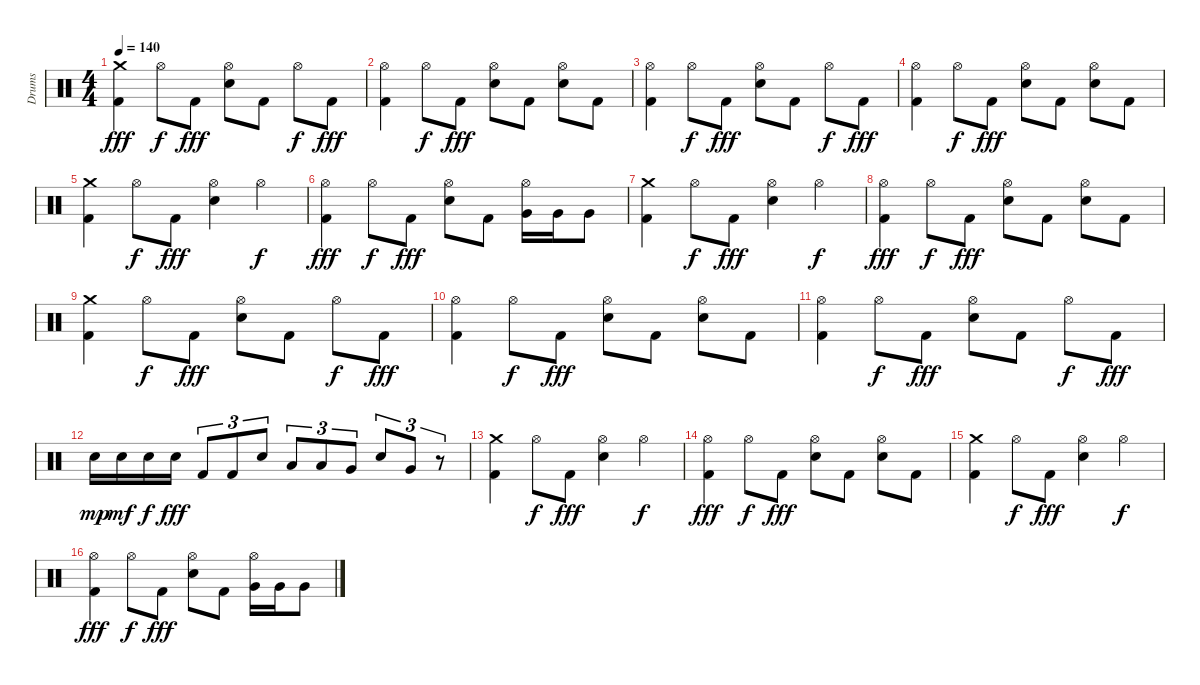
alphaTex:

\track ("Drums" "Drums") {instrument percussion}
\staff {score}
\articulation defaults
\ts (4 4)
\tempo 140
\clef neutral
\ks c
("Crash medium (hit)" "Kick (hit) 2").4{dy fff} "Hi-Hat (open)".8{dy f} "Kick (hit) 2".8{dy fff} ("Hi-Hat (open)" "Electric Snare (hit)").8 "Kick (hit) 2".8 "Hi-Hat (open)".8{dy f} "Kick (hit) 2".8{dy fff} |
("Hi-Hat (open)" "Kick (hit) 2").4 "Hi-Hat (open)".8{dy f} "Kick (hit) 2".8{dy fff} ("Hi-Hat (open)" "Electric Snare (hit)").8 "Kick (hit) 2".8 ("Hi-Hat (open)" "Electric Snare (hit)").8 "Kick (hit) 2".8 |
("Hi-Hat (open)" "Kick (hit) 2").4 "Hi-Hat (open)".8{dy f} "Kick (hit) 2".8{dy fff} ("Hi-Hat (open)" "Electric Snare (hit)").8 "Kick (hit) 2".8 "Hi-Hat (open)".8{dy f} "Kick (hit) 2".8{dy fff} |
("Hi-Hat (open)" "Kick (hit) 2").4 "Hi-Hat (open)".8{dy f} "Kick (hit) 2".8{dy fff} ("Hi-Hat (open)" "Electric Snare (hit)").8 "Kick (hit) 2".8 ("Hi-Hat (open)" "Electric Snare (hit)").8 "Kick (hit) 2".8 |
("Crash medium (hit)" "Kick (hit) 2").4 "Hi-Hat (open)".8{dy f} "Kick (hit) 2".8{dy fff} ("Hi-Hat (open)" "Electric Snare (hit)").4 "Hi-Hat (open)".4{dy f} |
("Hi-Hat (open)" "Kick (hit) 2").4{dy fff} "Hi-Hat (open)".8{dy f} "Kick (hit) 2".8{dy fff} ("Hi-Hat (open)" "Electric Snare (hit)").8 "Kick (hit) 2".8 ("Hi-Hat (open)" "Very Low Tom (hit)").16 "Very Low Tom (hit)".16 "Very Low Tom (hit)".8 |
("Crash medium (hit)" "Kick (hit) 2").4 "Hi-Hat (open)".8{dy f} "Kick (hit) 2".8{dy fff} ("Hi-Hat (open)" "Electric Snare (hit)").4 "Hi-Hat (open)".4{dy f} |
("Hi-Hat (open)" "Kick (hit) 2").4{dy fff} "Hi-Hat (open)".8{dy f} "Kick (hit) 2".8{dy fff} ("Hi-Hat (open)" "Electric Snare (hit)").8 "Kick (hit) 2".8 ("Hi-Hat (open)" "Electric Snare (hit)").8 "Kick (hit) 2".8 |
("Crash medium (hit)" "Kick (hit) 2").4 "Hi-Hat (open)".8{dy f} "Kick (hit) 2".8{dy fff} ("Hi-Hat (open)" "Electric Snare (hit)").8 "Kick (hit) 2".8 "Hi-Hat (open)".8{dy f} "Kick (hit) 2".8{dy fff} |
("Hi-Hat (open)" "Kick (hit) 2").4 "Hi-Hat (open)".8{dy f} "Kick (hit) 2".8{dy fff} ("Hi-Hat (open)" "Electric Snare (hit)").8 "Kick (hit) 2".8 ("Hi-Hat (open)" "Electric Snare (hit)").8 "Kick (hit) 2".8 |
("Hi-Hat (open)" "Kick (hit) 2").4 "Hi-Hat (open)".8{dy f} "Kick (hit) 2".8{dy fff} ("Hi-Hat (open)" "Electric Snare (hit)").8 "Kick (hit) 2".8 "Hi-Hat (open)".8{dy f} "Kick (hit) 2".8{dy fff} |
"Electric Snare (hit)".16{dy mp} "Electric Snare (hit)".16{dy mf} "Electric Snare (hit)".16{dy f} "Electric Snare (hit)".16{dy fff} "Kick (hit) 2".8{tu (3 2)} "Kick (hit) 2".8{tu (3 2)} "Electric Snare (hit)".8{tu (3 2)} "Low Tom (hit)".8{tu (3 2)} "Low Tom (hit)".8{tu (3 2)} "Very Low Tom (hit)".8{tu (3 2)} "Electric Snare (hit)".8{tu (3 2)} "Very Low Tom (hit)".8{tu (3 2)} r.8{tu (3 2)} |
("Crash medium (hit)" "Kick (hit) 2").4 "Hi-Hat (open)".8{dy f} "Kick (hit) 2".8{dy fff} ("Hi-Hat (open)" "Electric Snare (hit)").4 "Hi-Hat (open)".4{dy f} |
("Hi-Hat (open)" "Kick (hit) 2").4{dy fff} "Hi-Hat (open)".8{dy f} "Kick (hit) 2".8{dy fff} ("Hi-Hat (open)" "Electric Snare (hit)").8 "Kick (hit) 2".8 ("Hi-Hat (open)" "Electric Snare (hit)").8 "Kick (hit) 2".8 |
("Crash medium (hit)" "Kick (hit) 2").4 "Hi-Hat (open)".8{dy f} "Kick (hit) 2".8{dy fff} ("Hi-Hat (open)" "Electric Snare (hit)").4 "Hi-Hat (open)".4{dy f} |
("Hi-Hat (open)" "Kick (hit) 2").4{dy fff} "Hi-Hat (open)".8{dy f} "Kick (hit) 2".8{dy fff} ("Hi-Hat (open)" "Electric Snare (hit)").8 "Kick (hit) 2".8 ("Hi-Hat (open)" "Very Low Tom (hit)").16 "Very Low Tom (hit)".16 "Very Low Tom (hit)".8
